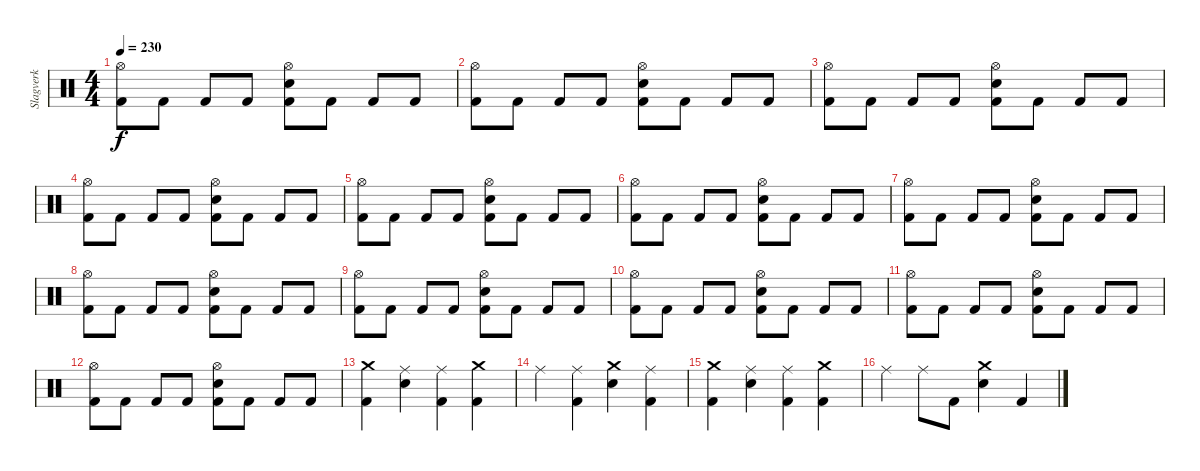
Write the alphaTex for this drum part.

\track ("Slagverk" "Slagverk") {instrument percussion}
\staff {score}
\articulation defaults
\ts (4 4)
\tempo 230
\clef neutral
\ks c
("Hi-Hat (open)" "Kick (hit) 2").8{dy f} "Kick (hit) 2".8 "Kick (hit) 2".8 "Kick (hit) 2".8 ("Hi-Hat (open)" "Kick (hit) 2" "Snare (hit) 2").8 "Kick (hit) 2".8 "Kick (hit) 2".8 "Kick (hit) 2".8 |
("Kick (hit) 2" "Hi-Hat (open)").8 "Kick (hit) 2".8 "Kick (hit) 2".8 "Kick (hit) 2".8 ("Hi-Hat (open)" "Kick (hit) 2" "Snare (hit) 2").8 "Kick (hit) 2".8 "Kick (hit) 2".8 "Kick (hit) 2".8 |
("Kick (hit) 2" "Hi-Hat (open)").8 "Kick (hit) 2".8 "Kick (hit) 2".8 "Kick (hit) 2".8 ("Hi-Hat (open)" "Kick (hit) 2" "Snare (hit) 2").8 "Kick (hit) 2".8 "Kick (hit) 2".8 "Kick (hit) 2".8 |
("Kick (hit) 2" "Hi-Hat (open)").8 "Kick (hit) 2".8 "Kick (hit) 2".8 "Kick (hit) 2".8 ("Hi-Hat (open)" "Kick (hit) 2" "Snare (hit) 2").8 "Kick (hit) 2".8 "Kick (hit) 2".8 "Kick (hit) 2".8 |
("Hi-Hat (open)" "Kick (hit) 2").8 "Kick (hit) 2".8 "Kick (hit) 2".8 "Kick (hit) 2".8 ("Hi-Hat (open)" "Kick (hit) 2" "Snare (hit) 2").8 "Kick (hit) 2".8 "Kick (hit) 2".8 "Kick (hit) 2".8 |
("Kick (hit) 2" "Hi-Hat (open)").8 "Kick (hit) 2".8 "Kick (hit) 2".8 "Kick (hit) 2".8 ("Hi-Hat (open)" "Kick (hit) 2" "Snare (hit) 2").8 "Kick (hit) 2".8 "Kick (hit) 2".8 "Kick (hit) 2".8 |
("Kick (hit) 2" "Hi-Hat (open)").8 "Kick (hit) 2".8 "Kick (hit) 2".8 "Kick (hit) 2".8 ("Hi-Hat (open)" "Kick (hit) 2" "Snare (hit) 2").8 "Kick (hit) 2".8 "Kick (hit) 2".8 "Kick (hit) 2".8 |
("Kick (hit) 2" "Hi-Hat (open)").8 "Kick (hit) 2".8 "Kick (hit) 2".8 "Kick (hit) 2".8 ("Hi-Hat (open)" "Kick (hit) 2" "Snare (hit) 2").8 "Kick (hit) 2".8 "Kick (hit) 2".8 "Kick (hit) 2".8 |
("Hi-Hat (open)" "Kick (hit) 2").8 "Kick (hit) 2".8 "Kick (hit) 2".8 "Kick (hit) 2".8 ("Hi-Hat (open)" "Kick (hit) 2" "Snare (hit) 2").8 "Kick (hit) 2".8 "Kick (hit) 2".8 "Kick (hit) 2".8 |
("Kick (hit) 2" "Hi-Hat (open)").8 "Kick (hit) 2".8 "Kick (hit) 2".8 "Kick (hit) 2".8 ("Hi-Hat (open)" "Kick (hit) 2" "Snare (hit) 2").8 "Kick (hit) 2".8 "Kick (hit) 2".8 "Kick (hit) 2".8 |
("Kick (hit) 2" "Hi-Hat (open)").8 "Kick (hit) 2".8 "Kick (hit) 2".8 "Kick (hit) 2".8 ("Hi-Hat (open)" "Kick (hit) 2" "Snare (hit) 2").8 "Kick (hit) 2".8 "Kick (hit) 2".8 "Kick (hit) 2".8 |
("Kick (hit) 2" "Hi-Hat (open)").8 "Kick (hit) 2".8 "Kick (hit) 2".8 "Kick (hit) 2".8 ("Hi-Hat (open)" "Kick (hit) 2" "Snare (hit) 2").8 "Kick (hit) 2".8 "Kick (hit) 2".8 "Kick (hit) 2".8 |
("Kick (hit) 2" "Crash medium (hit)").4 ("Snare (hit) 2" "Ride (middle)").4 ("Kick (hit) 2" "Ride (middle)").4 ("Kick (hit) 2" "Crash medium (hit)").4 |
"Ride (middle)".4 ("Kick (hit) 2" "Ride (middle)").4 ("Snare (hit) 2" "Crash medium (hit)").4 ("Kick (hit) 2" "Ride (middle)").4 |
("Kick (hit) 2" "Crash medium (hit)").4 ("Snare (hit) 2" "Ride (middle)").4 ("Kick (hit) 2" "Ride (middle)").4 ("Kick (hit) 2" "Crash medium (hit)").4 |
"Ride (middle)".4 "Ride (middle)".8 "Kick (hit) 2".8 ("Snare (hit) 2" "Crash medium (hit)").4 "Kick (hit) 2".4
